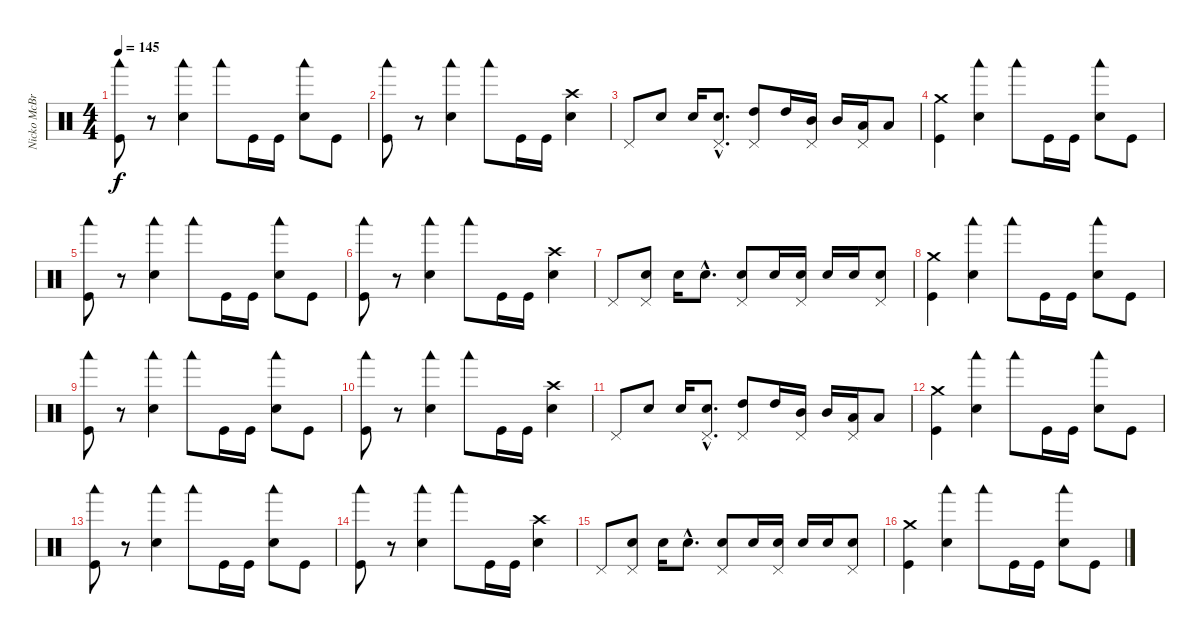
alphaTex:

\track ("Nicko McBrain" "Nicko McBr") {instrument percussion}
\staff {score}
\articulation defaults
\ts (4 4)
\tempo 145
\clef neutral
\ks c
("Woodblock low (hit)" "Kick (hit)").8{dy f} r.8 ("Woodblock low (hit)" "Electric Snare (hit)").4 "Woodblock low (hit)".8 "Kick (hit)".16 "Kick (hit)".16 ("Woodblock low (hit)" "Electric Snare (hit)").8 "Kick (hit)".8 |
("Woodblock low (hit)" "Kick (hit)").8 r.8 ("Woodblock low (hit)" "Electric Snare (hit)").4 "Woodblock low (hit)".8 "Kick (hit)".16 "Kick (hit)".16 ("Crash high (hit)" "Electric Snare (hit)").4 |
"Pedal Hi-Hat (hit)".8 "Electric Snare (hit)".8 "Electric Snare (hit)".16 ("Pedal Hi-Hat (hit)"{hac} "Electric Snare (hit)"{hac}).8{d} ("Pedal Hi-Hat (hit)" "High Tom (hit)").8 "High Tom (hit)".16 ("Pedal Hi-Hat (hit)" "Mid Tom (hit)").16 "Mid Tom (hit)".16 ("Pedal Hi-Hat (hit)" "Low Tom (hit)").16 "Low Tom (hit)".8 |
("Crash medium (hit)" "Kick (hit)").4 ("Woodblock low (hit)" "Electric Snare (hit)").4 "Woodblock low (hit)".8 "Kick (hit)".16 "Kick (hit)".16 ("Woodblock low (hit)" "Electric Snare (hit)").8 "Kick (hit)".8 |
("Woodblock low (hit)" "Kick (hit)").8 r.8 ("Woodblock low (hit)" "Electric Snare (hit)").4 "Woodblock low (hit)".8 "Kick (hit)".16 "Kick (hit)".16 ("Woodblock low (hit)" "Electric Snare (hit)").8 "Kick (hit)".8 |
("Woodblock low (hit)" "Kick (hit)").8 r.8 ("Woodblock low (hit)" "Electric Snare (hit)").4 "Woodblock low (hit)".8 "Kick (hit)".16 "Kick (hit)".16 ("Crash high (hit)" "Electric Snare (hit)").4 |
"Pedal Hi-Hat (hit)".8 ("Pedal Hi-Hat (hit)" "Electric Snare (hit)").8 "Electric Snare (hit)".16 "Electric Snare (hit)"{hac}.8{d} ("Pedal Hi-Hat (hit)" "Electric Snare (hit)").8 "Electric Snare (hit)".16 ("Pedal Hi-Hat (hit)" "Electric Snare (hit)").16 "Electric Snare (hit)".16 "Electric Snare (hit)".16 ("Pedal Hi-Hat (hit)" "Electric Snare (hit)").8 |
("Crash medium (hit)" "Kick (hit)").4 ("Woodblock low (hit)" "Electric Snare (hit)").4 "Woodblock low (hit)".8 "Kick (hit)".16 "Kick (hit)".16 ("Woodblock low (hit)" "Electric Snare (hit)").8 "Kick (hit)".8 |
("Woodblock low (hit)" "Kick (hit)").8 r.8 ("Woodblock low (hit)" "Electric Snare (hit)").4 "Woodblock low (hit)".8 "Kick (hit)".16 "Kick (hit)".16 ("Woodblock low (hit)" "Electric Snare (hit)").8 "Kick (hit)".8 |
("Woodblock low (hit)" "Kick (hit)").8 r.8 ("Woodblock low (hit)" "Electric Snare (hit)").4 "Woodblock low (hit)".8 "Kick (hit)".16 "Kick (hit)".16 ("Crash high (hit)" "Electric Snare (hit)").4 |
"Pedal Hi-Hat (hit)".8 "Electric Snare (hit)".8 "Electric Snare (hit)".16 ("Pedal Hi-Hat (hit)"{hac} "Electric Snare (hit)"{hac}).8{d} ("Pedal Hi-Hat (hit)" "High Tom (hit)").8 "High Tom (hit)".16 ("Pedal Hi-Hat (hit)" "Mid Tom (hit)").16 "Mid Tom (hit)".16 ("Pedal Hi-Hat (hit)" "Low Tom (hit)").16 "Low Tom (hit)".8 |
("Crash medium (hit)" "Kick (hit)").4 ("Woodblock low (hit)" "Electric Snare (hit)").4 "Woodblock low (hit)".8 "Kick (hit)".16 "Kick (hit)".16 ("Woodblock low (hit)" "Electric Snare (hit)").8 "Kick (hit)".8 |
("Woodblock low (hit)" "Kick (hit)").8 r.8 ("Woodblock low (hit)" "Electric Snare (hit)").4 "Woodblock low (hit)".8 "Kick (hit)".16 "Kick (hit)".16 ("Woodblock low (hit)" "Electric Snare (hit)").8 "Kick (hit)".8 |
("Woodblock low (hit)" "Kick (hit)").8 r.8 ("Woodblock low (hit)" "Electric Snare (hit)").4 "Woodblock low (hit)".8 "Kick (hit)".16 "Kick (hit)".16 ("Crash high (hit)" "Electric Snare (hit)").4 |
"Pedal Hi-Hat (hit)".8 ("Pedal Hi-Hat (hit)" "Electric Snare (hit)").8 "Electric Snare (hit)".16 "Electric Snare (hit)"{hac}.8{d} ("Pedal Hi-Hat (hit)" "Electric Snare (hit)").8 "Electric Snare (hit)".16 ("Pedal Hi-Hat (hit)" "Electric Snare (hit)").16 "Electric Snare (hit)".16 "Electric Snare (hit)".16 ("Pedal Hi-Hat (hit)" "Electric Snare (hit)").8 |
("Crash medium (hit)" "Kick (hit)").4 ("Woodblock low (hit)" "Electric Snare (hit)").4 "Woodblock low (hit)".8 "Kick (hit)".16 "Kick (hit)".16 ("Woodblock low (hit)" "Electric Snare (hit)").8 "Kick (hit)".8
